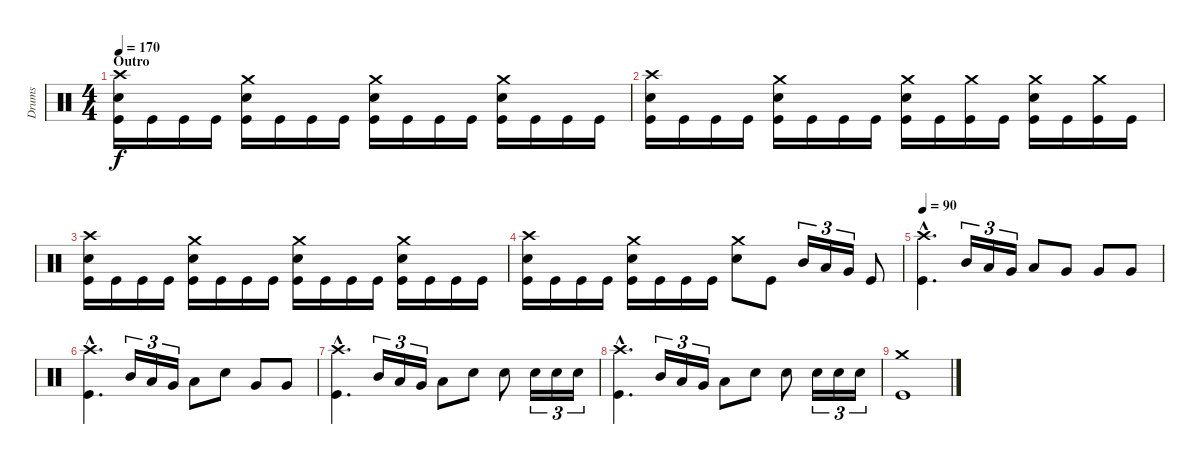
\track ("Drums" "Drums") {instrument percussion}
\staff {score}
\articulation defaults
\ts (4 4)
\section ("" "Outro")
\tempo 170
\clef neutral
\ks c
("Crash high (hit)" "Electric Snare (hit)" "Kick (hit)").16{dy f} "Kick (hit)".16 "Kick (hit)".16 "Kick (hit)".16 ("Crash medium (hit)" "Electric Snare (hit)" "Kick (hit)").16 "Kick (hit)".16 "Kick (hit)".16 "Kick (hit)".16 ("Crash medium (hit)" "Electric Snare (hit)" "Kick (hit)").16 "Kick (hit)".16 "Kick (hit)".16 "Kick (hit)".16 ("Crash medium (hit)" "Electric Snare (hit)" "Kick (hit)").16 "Kick (hit)".16 "Kick (hit)".16 "Kick (hit)".16 |
("Crash high (hit)" "Electric Snare (hit)" "Kick (hit)").16 "Kick (hit)".16 "Kick (hit)".16 "Kick (hit)".16 ("Crash medium (hit)" "Electric Snare (hit)" "Kick (hit)").16 "Kick (hit)".16 "Kick (hit)".16 "Kick (hit)".16 ("Crash medium (hit)" "Electric Snare (hit)" "Kick (hit)").16 "Kick (hit)".16 ("Crash medium (hit)" "Kick (hit)").16 "Kick (hit)".16 ("Crash medium (hit)" "Electric Snare (hit)" "Kick (hit)").16 "Kick (hit)".16 ("Crash medium (hit)" "Kick (hit)").16 "Kick (hit)".16 |
("Crash high (hit)" "Electric Snare (hit)" "Kick (hit)").16 "Kick (hit)".16 "Kick (hit)".16 "Kick (hit)".16 ("Crash medium (hit)" "Electric Snare (hit)" "Kick (hit)").16 "Kick (hit)".16 "Kick (hit)".16 "Kick (hit)".16 ("Crash medium (hit)" "Electric Snare (hit)" "Kick (hit)").16 "Kick (hit)".16 "Kick (hit)".16 "Kick (hit)".16 ("Crash medium (hit)" "Electric Snare (hit)" "Kick (hit)").16 "Kick (hit)".16 "Kick (hit)".16 "Kick (hit)".16 |
("Crash high (hit)" "Electric Snare (hit)" "Kick (hit)").16 "Kick (hit)".16 "Kick (hit)".16 "Kick (hit)".16 ("Crash medium (hit)" "Electric Snare (hit)" "Kick (hit)").16 "Kick (hit)".16 "Kick (hit)".16 "Kick (hit)".16 ("Crash medium (hit)" "Electric Snare (hit)").8 "Kick (hit)".8 "Mid Tom (hit)".16{tu (3 2)} "Low Tom (hit)".16{tu (3 2)} "Very Low Tom (hit)".16{tu (3 2)} "Kick (hit)".8 |
\tempo 90
("Crash high (hit)"{hac} "Kick (hit)"{hac}).4{d} "Mid Tom (hit)".16{tu (3 2)} "Low Tom (hit)".16{tu (3 2)} "Very Low Tom (hit)".16{tu (3 2)} "Low Tom (hit)".8 "Very Low Tom (hit)".8 "Very Low Tom (hit)".8 "Very Low Tom (hit)".8 |
("Crash high (hit)"{hac} "Kick (hit)"{hac}).4{d} "Mid Tom (hit)".16{tu (3 2)} "Low Tom (hit)".16{tu (3 2)} "Very Low Tom (hit)".16{tu (3 2)} "Low Tom (hit)".8 "Electric Snare (hit)".8 "Very Low Tom (hit)".8 "Very Low Tom (hit)".8 |
("Crash high (hit)"{hac} "Kick (hit)"{hac}).4{d} "Mid Tom (hit)".16{tu (3 2)} "Low Tom (hit)".16{tu (3 2)} "Very Low Tom (hit)".16{tu (3 2)} "Low Tom (hit)".8 "Electric Snare (hit)".8 "Electric Snare (hit)".8 "Electric Snare (hit)".16{tu (3 2)} "Electric Snare (hit)".16{tu (3 2)} "Electric Snare (hit)".16{tu (3 2)} |
("Crash high (hit)"{hac} "Kick (hit)"{hac}).4{d} "Mid Tom (hit)".16{tu (3 2)} "Low Tom (hit)".16{tu (3 2)} "Very Low Tom (hit)".16{tu (3 2)} "Low Tom (hit)".8 "Electric Snare (hit)".8 "Electric Snare (hit)".8 "Electric Snare (hit)".16{tu (3 2)} "Electric Snare (hit)".16{tu (3 2)} "Electric Snare (hit)".16{tu (3 2)} |
("Crash medium (hit)" "Kick (hit)").1
